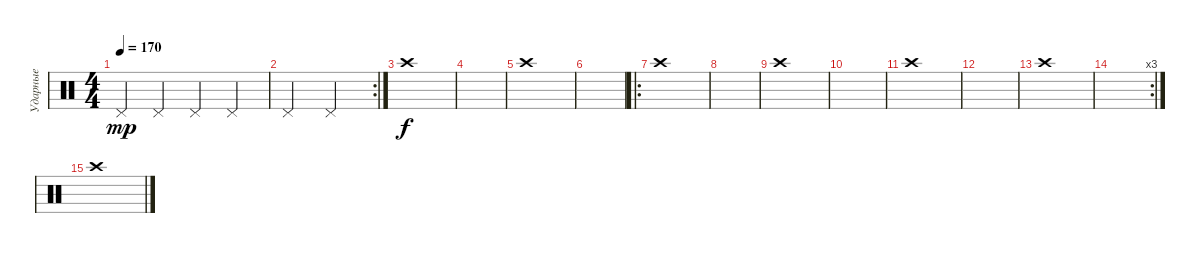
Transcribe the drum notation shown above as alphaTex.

\track ("Ударные" "Ударные") {instrument percussion}
\staff {score}
\articulation defaults
\ts (4 4)
\tempo 170
\clef neutral
\ks c "Pedal Hi-Hat (hit)".4{dy mp} "Pedal Hi-Hat (hit)".4 "Pedal Hi-Hat (hit)".4 "Pedal Hi-Hat (hit)".4
|
\rc 2 "Pedal Hi-Hat (hit)".2 "Pedal Hi-Hat (hit)".2
|
"Crash high (hit)".1{dy f} |
|
"Crash high (hit)".1 |
|
\ro "Crash high (hit)".1
|
|
"Crash high (hit)".1 |
|
"Crash high (hit)".1 |
|
"Crash high (hit)".1 |
\rc 3
|
"Crash high (hit)".1
